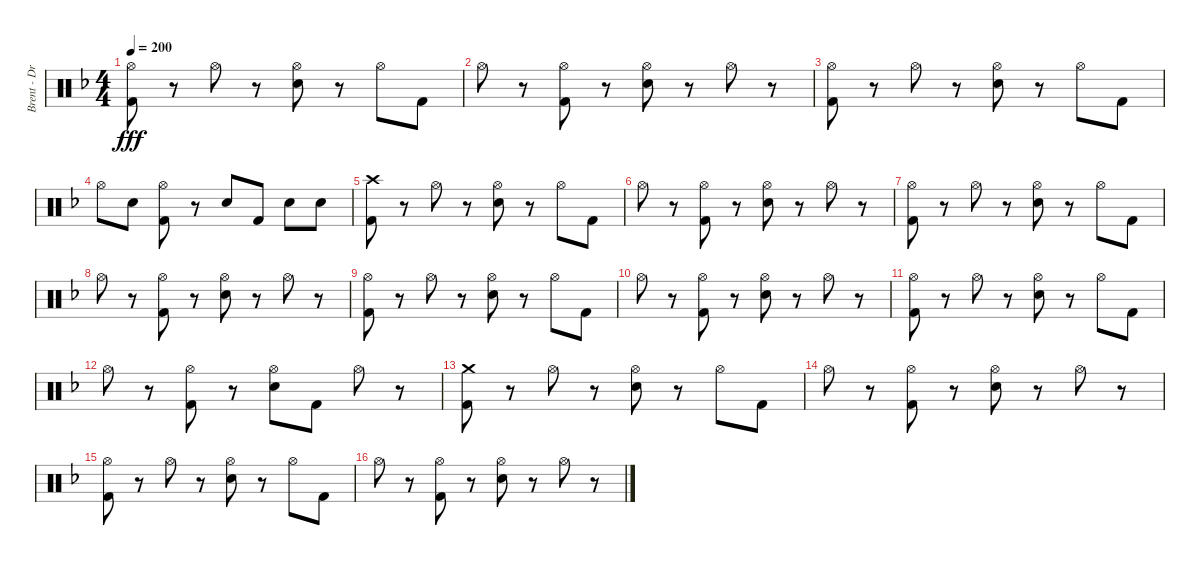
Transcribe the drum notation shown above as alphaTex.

\track ("Brent - Drums" "Brent - Dr") {instrument percussion}
\staff {score}
\articulation defaults
\ts (4 4)
\tempo 200
\clef neutral
\ks dminor
("Hi-Hat (open)" "Kick (hit) 2").8{dy fff} r.8 "Hi-Hat (open)".8 r.8 ("Hi-Hat (open)" "Snare (hit) 2").8 r.8 "Hi-Hat (open)".8 "Kick (hit) 2".8 |
"Hi-Hat (open)".8 r.8 ("Hi-Hat (open)" "Kick (hit) 2").8 r.8 ("Hi-Hat (open)" "Snare (hit) 2").8 r.8 "Hi-Hat (open)".8 r.8 |
("Hi-Hat (open)" "Kick (hit) 2").8 r.8 "Hi-Hat (open)".8 r.8 ("Hi-Hat (open)" "Snare (hit) 2").8 r.8 "Hi-Hat (open)".8 "Kick (hit) 2".8 |
"Hi-Hat (open)".8 "Snare (hit) 2".8 ("Hi-Hat (open)" "Kick (hit) 2").8 r.8 "Snare (hit) 2".8 "Kick (hit) 2".8 "Snare (hit) 2".8 "Snare (hit) 2".8 |
("Crash high (hit)" "Kick (hit) 2").8 r.8 "Hi-Hat (open)".8 r.8 ("Hi-Hat (open)" "Snare (hit) 2").8 r.8 "Hi-Hat (open)".8 "Kick (hit) 2".8 |
"Hi-Hat (open)".8 r.8 ("Hi-Hat (open)" "Kick (hit) 2").8 r.8 ("Hi-Hat (open)" "Snare (hit) 2").8 r.8 "Hi-Hat (open)".8 r.8 |
("Hi-Hat (open)" "Kick (hit) 2").8 r.8 "Hi-Hat (open)".8 r.8 ("Hi-Hat (open)" "Snare (hit) 2").8 r.8 "Hi-Hat (open)".8 "Kick (hit) 2".8 |
"Hi-Hat (open)".8 r.8 ("Hi-Hat (open)" "Kick (hit) 2").8 r.8 ("Hi-Hat (open)" "Snare (hit) 2").8 r.8 "Hi-Hat (open)".8 r.8 |
("Hi-Hat (open)" "Kick (hit) 2").8 r.8 "Hi-Hat (open)".8 r.8 ("Hi-Hat (open)" "Snare (hit) 2").8 r.8 "Hi-Hat (open)".8 "Kick (hit) 2".8 |
"Hi-Hat (open)".8 r.8 ("Hi-Hat (open)" "Kick (hit) 2").8 r.8 ("Hi-Hat (open)" "Snare (hit) 2").8 r.8 "Hi-Hat (open)".8 r.8 |
("Hi-Hat (open)" "Kick (hit) 2").8 r.8 "Hi-Hat (open)".8 r.8 ("Hi-Hat (open)" "Snare (hit) 2").8 r.8 "Hi-Hat (open)".8 "Kick (hit) 2".8 |
"Hi-Hat (open)".8 r.8 ("Hi-Hat (open)" "Kick (hit) 2").8 r.8 ("Hi-Hat (open)" "Snare (hit) 2").8 "Kick (hit) 2".8 "Hi-Hat (open)".8 r.8 |
("Crash medium (hit)" "Kick (hit) 2").8 r.8 "Hi-Hat (open)".8 r.8 ("Hi-Hat (open)" "Snare (hit) 2").8 r.8 "Hi-Hat (open)".8 "Kick (hit) 2".8 |
"Hi-Hat (open)".8 r.8 ("Hi-Hat (open)" "Kick (hit) 2").8 r.8 ("Hi-Hat (open)" "Snare (hit) 2").8 r.8 "Hi-Hat (open)".8 r.8 |
("Hi-Hat (open)" "Kick (hit) 2").8 r.8 "Hi-Hat (open)".8 r.8 ("Hi-Hat (open)" "Snare (hit) 2").8 r.8 "Hi-Hat (open)".8 "Kick (hit) 2".8 |
"Hi-Hat (open)".8 r.8 ("Hi-Hat (open)" "Kick (hit) 2").8 r.8 ("Hi-Hat (open)" "Snare (hit) 2").8 r.8 "Hi-Hat (open)".8 r.8
